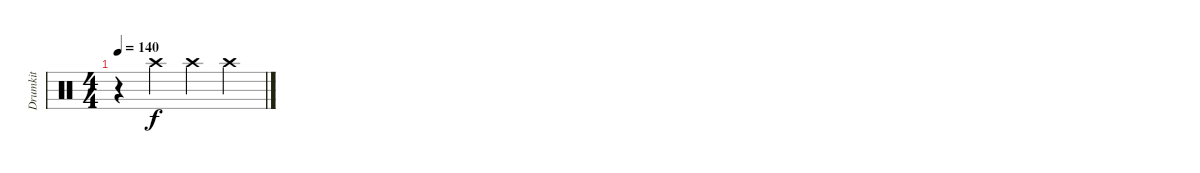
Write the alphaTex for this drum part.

\track ("Drumkit" "Drumkit") {instrument percussion}
\staff {score}
\articulation defaults
\ts (4 4)
\tempo 140
\clef neutral
\ks c
r.4{dy f} "Crash high (hit)".4 "Crash high (hit)".4 "Crash high (hit)".4
